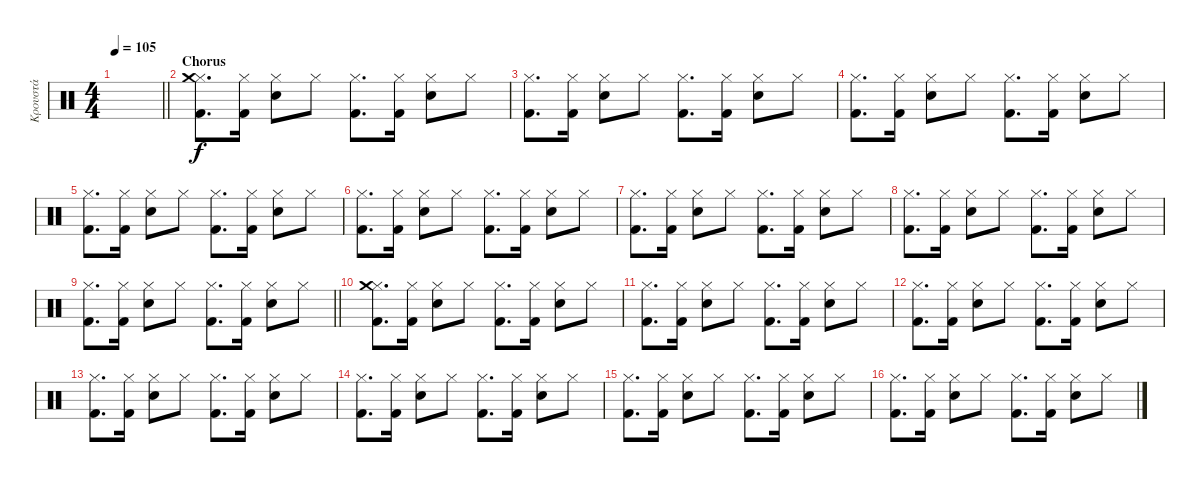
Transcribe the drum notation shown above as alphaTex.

\track ("Κρουστά" "Κρουστά") {instrument percussion}
\staff {score}
\articulation defaults
\ts (4 4)
\tempo 105
\clef neutral
\barLineRight lightlight
\ks c
|
\section ("" "Chorus")
("Hi-Hat (closed)" "Kick (hit) 2" "Crash medium (hit)").8{d} ("Hi-Hat (closed)" "Kick (hit) 2").16 ("Hi-Hat (closed)" "Electric Snare (hit)").8 "Hi-Hat (closed)".8 ("Hi-Hat (closed)" "Kick (hit) 2").8{d} ("Hi-Hat (closed)" "Kick (hit) 2").16 ("Hi-Hat (closed)" "Electric Snare (hit)").8 "Hi-Hat (closed)".8 |
("Hi-Hat (closed)" "Kick (hit) 2").8{d} ("Hi-Hat (closed)" "Kick (hit) 2").16 ("Hi-Hat (closed)" "Electric Snare (hit)").8 "Hi-Hat (closed)".8 ("Hi-Hat (closed)" "Kick (hit) 2").8{d} ("Hi-Hat (closed)" "Kick (hit) 2").16 ("Hi-Hat (closed)" "Electric Snare (hit)").8 "Hi-Hat (closed)".8 |
("Hi-Hat (closed)" "Kick (hit) 2").8{d} ("Hi-Hat (closed)" "Kick (hit) 2").16 ("Hi-Hat (closed)" "Electric Snare (hit)").8 "Hi-Hat (closed)".8 ("Hi-Hat (closed)" "Kick (hit) 2").8{d} ("Hi-Hat (closed)" "Kick (hit) 2").16 ("Hi-Hat (closed)" "Electric Snare (hit)").8 "Hi-Hat (closed)".8 |
("Hi-Hat (closed)" "Kick (hit) 2").8{d} ("Hi-Hat (closed)" "Kick (hit) 2").16 ("Hi-Hat (closed)" "Electric Snare (hit)").8 "Hi-Hat (closed)".8 ("Hi-Hat (closed)" "Kick (hit) 2").8{d} ("Hi-Hat (closed)" "Kick (hit) 2").16 ("Hi-Hat (closed)" "Electric Snare (hit)").8 "Hi-Hat (closed)".8 |
("Hi-Hat (closed)" "Kick (hit) 2").8{d} ("Hi-Hat (closed)" "Kick (hit) 2").16 ("Hi-Hat (closed)" "Electric Snare (hit)").8 "Hi-Hat (closed)".8 ("Hi-Hat (closed)" "Kick (hit) 2").8{d} ("Hi-Hat (closed)" "Kick (hit) 2").16 ("Hi-Hat (closed)" "Electric Snare (hit)").8 "Hi-Hat (closed)".8 |
("Hi-Hat (closed)" "Kick (hit) 2").8{d} ("Hi-Hat (closed)" "Kick (hit) 2").16 ("Hi-Hat (closed)" "Electric Snare (hit)").8 "Hi-Hat (closed)".8 ("Hi-Hat (closed)" "Kick (hit) 2").8{d} ("Hi-Hat (closed)" "Kick (hit) 2").16 ("Hi-Hat (closed)" "Electric Snare (hit)").8 "Hi-Hat (closed)".8 |
("Hi-Hat (closed)" "Kick (hit) 2").8{d} ("Hi-Hat (closed)" "Kick (hit) 2").16 ("Hi-Hat (closed)" "Electric Snare (hit)").8 "Hi-Hat (closed)".8 ("Hi-Hat (closed)" "Kick (hit) 2").8{d} ("Hi-Hat (closed)" "Kick (hit) 2").16 ("Hi-Hat (closed)" "Electric Snare (hit)").8 "Hi-Hat (closed)".8 |
\barLineRight lightlight
("Hi-Hat (closed)" "Kick (hit) 2").8{d} ("Hi-Hat (closed)" "Kick (hit) 2").16 ("Hi-Hat (closed)" "Electric Snare (hit)").8 "Hi-Hat (closed)".8 ("Hi-Hat (closed)" "Kick (hit) 2").8{d} ("Hi-Hat (closed)" "Kick (hit) 2").16 ("Hi-Hat (closed)" "Electric Snare (hit)").8 "Hi-Hat (closed)".8 |
("Hi-Hat (closed)" "Kick (hit) 2" "Crash medium (hit)").8{d} ("Hi-Hat (closed)" "Kick (hit) 2").16 ("Hi-Hat (closed)" "Electric Snare (hit)").8 "Hi-Hat (closed)".8 ("Hi-Hat (closed)" "Kick (hit) 2").8{d} ("Hi-Hat (closed)" "Kick (hit) 2").16 ("Hi-Hat (closed)" "Electric Snare (hit)").8 "Hi-Hat (closed)".8 |
("Hi-Hat (closed)" "Kick (hit) 2").8{d} ("Hi-Hat (closed)" "Kick (hit) 2").16 ("Hi-Hat (closed)" "Electric Snare (hit)").8 "Hi-Hat (closed)".8 ("Hi-Hat (closed)" "Kick (hit) 2").8{d} ("Hi-Hat (closed)" "Kick (hit) 2").16 ("Hi-Hat (closed)" "Electric Snare (hit)").8 "Hi-Hat (closed)".8 |
("Hi-Hat (closed)" "Kick (hit) 2").8{d} ("Hi-Hat (closed)" "Kick (hit) 2").16 ("Hi-Hat (closed)" "Electric Snare (hit)").8 "Hi-Hat (closed)".8 ("Hi-Hat (closed)" "Kick (hit) 2").8{d} ("Hi-Hat (closed)" "Kick (hit) 2").16 ("Hi-Hat (closed)" "Electric Snare (hit)").8 "Hi-Hat (closed)".8 |
("Hi-Hat (closed)" "Kick (hit) 2").8{d} ("Hi-Hat (closed)" "Kick (hit) 2").16 ("Hi-Hat (closed)" "Electric Snare (hit)").8 "Hi-Hat (closed)".8 ("Hi-Hat (closed)" "Kick (hit) 2").8{d} ("Hi-Hat (closed)" "Kick (hit) 2").16 ("Hi-Hat (closed)" "Electric Snare (hit)").8 "Hi-Hat (closed)".8 |
("Hi-Hat (closed)" "Kick (hit) 2").8{d} ("Hi-Hat (closed)" "Kick (hit) 2").16 ("Hi-Hat (closed)" "Electric Snare (hit)").8 "Hi-Hat (closed)".8 ("Hi-Hat (closed)" "Kick (hit) 2").8{d} ("Hi-Hat (closed)" "Kick (hit) 2").16 ("Hi-Hat (closed)" "Electric Snare (hit)").8 "Hi-Hat (closed)".8 |
("Hi-Hat (closed)" "Kick (hit) 2").8{d} ("Hi-Hat (closed)" "Kick (hit) 2").16 ("Hi-Hat (closed)" "Electric Snare (hit)").8 "Hi-Hat (closed)".8 ("Hi-Hat (closed)" "Kick (hit) 2").8{d} ("Hi-Hat (closed)" "Kick (hit) 2").16 ("Hi-Hat (closed)" "Electric Snare (hit)").8 "Hi-Hat (closed)".8 |
("Hi-Hat (closed)" "Kick (hit) 2").8{d} ("Hi-Hat (closed)" "Kick (hit) 2").16 ("Hi-Hat (closed)" "Electric Snare (hit)").8 "Hi-Hat (closed)".8 ("Hi-Hat (closed)" "Kick (hit) 2").8{d} ("Hi-Hat (closed)" "Kick (hit) 2").16 ("Hi-Hat (closed)" "Electric Snare (hit)").8 "Hi-Hat (closed)".8
